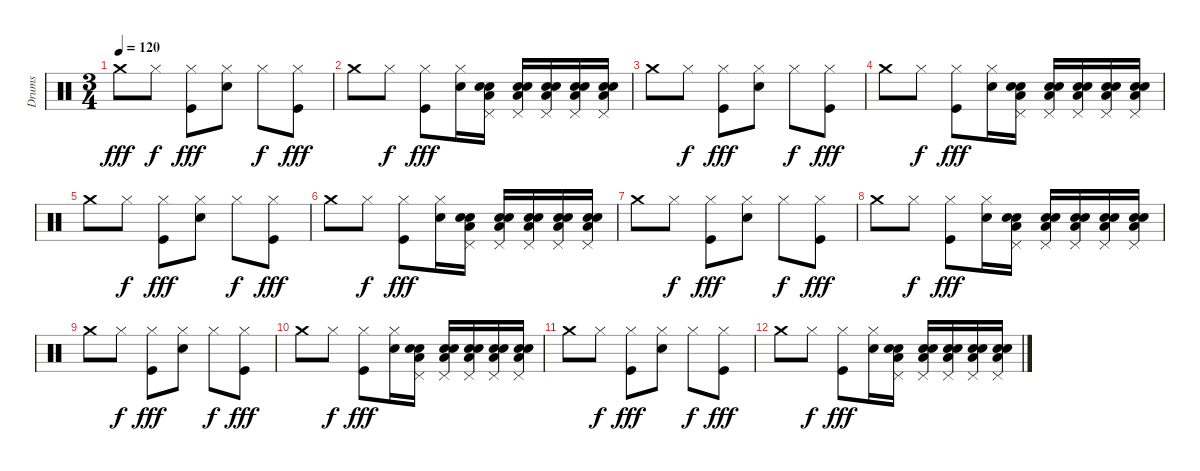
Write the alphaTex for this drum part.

\track ("Drums" "Drums") {instrument percussion}
\staff {score}
\articulation defaults
\ts (3 4)
\tempo 120
\clef neutral
\ks c "Crash medium (hit)".8{dy fff} "Hi-Hat (closed)".8{dy f}
("Kick (hit)" "Hi-Hat (closed)").8{dy fff} ("Snare (hit) 2" "Hi-Hat (closed)").8 "Hi-Hat (closed)".8{dy f} ("Kick (hit)" "Hi-Hat (closed)").8{dy fff} |
"Crash medium (hit)".8 "Hi-Hat (closed)".8{dy f} ("Kick (hit)" "Hi-Hat (closed)").8{dy fff} ("Snare (hit) 2" "Hi-Hat (closed)").16 ("Low Floor Tom (hit)" "Snare (hit) 2" "Snare (hit) 2" "Pedal Hi-Hat (hit)").16 ("Low Floor Tom (hit)" "Snare (hit) 2" "Snare (hit) 2" "Pedal Hi-Hat (hit)").16 ("Low Floor Tom (hit)" "Snare (hit) 2" "Snare (hit) 2" "Pedal Hi-Hat (hit)").16 ("Low Floor Tom (hit)" "Snare (hit) 2" "Snare (hit) 2" "Pedal Hi-Hat (hit)").16 ("Low Floor Tom (hit)" "Snare (hit) 2" "Snare (hit) 2" "Pedal Hi-Hat (hit)").16 |
"Crash medium (hit)".8 "Hi-Hat (closed)".8{dy f} ("Kick (hit)" "Hi-Hat (closed)").8{dy fff} ("Snare (hit) 2" "Hi-Hat (closed)").8 "Hi-Hat (closed)".8{dy f} ("Kick (hit)" "Hi-Hat (closed)").8{dy fff} |
"Crash medium (hit)".8 "Hi-Hat (closed)".8{dy f} ("Kick (hit)" "Hi-Hat (closed)").8{dy fff} ("Snare (hit) 2" "Hi-Hat (closed)").16 ("Low Floor Tom (hit)" "Snare (hit) 2" "Snare (hit) 2" "Pedal Hi-Hat (hit)").16 ("Low Floor Tom (hit)" "Snare (hit) 2" "Snare (hit) 2" "Pedal Hi-Hat (hit)").16 ("Low Floor Tom (hit)" "Snare (hit) 2" "Snare (hit) 2" "Pedal Hi-Hat (hit)").16 ("Low Floor Tom (hit)" "Snare (hit) 2" "Snare (hit) 2" "Pedal Hi-Hat (hit)").16 ("Low Floor Tom (hit)" "Snare (hit) 2" "Snare (hit) 2" "Pedal Hi-Hat (hit)").16 |
"Crash medium (hit)".8 "Hi-Hat (closed)".8{dy f} ("Kick (hit)" "Hi-Hat (closed)").8{dy fff} ("Snare (hit) 2" "Hi-Hat (closed)").8 "Hi-Hat (closed)".8{dy f} ("Kick (hit)" "Hi-Hat (closed)").8{dy fff} |
"Crash medium (hit)".8 "Hi-Hat (closed)".8{dy f} ("Kick (hit)" "Hi-Hat (closed)").8{dy fff} ("Snare (hit) 2" "Hi-Hat (closed)").16 ("Low Floor Tom (hit)" "Snare (hit) 2" "Snare (hit) 2" "Pedal Hi-Hat (hit)").16 ("Low Floor Tom (hit)" "Snare (hit) 2" "Snare (hit) 2" "Pedal Hi-Hat (hit)").16 ("Low Floor Tom (hit)" "Snare (hit) 2" "Snare (hit) 2" "Pedal Hi-Hat (hit)").16 ("Low Floor Tom (hit)" "Snare (hit) 2" "Snare (hit) 2" "Pedal Hi-Hat (hit)").16 ("Low Floor Tom (hit)" "Snare (hit) 2" "Snare (hit) 2" "Pedal Hi-Hat (hit)").16 |
"Crash medium (hit)".8 "Hi-Hat (closed)".8{dy f} ("Kick (hit)" "Hi-Hat (closed)").8{dy fff} ("Snare (hit) 2" "Hi-Hat (closed)").8 "Hi-Hat (closed)".8{dy f} ("Kick (hit)" "Hi-Hat (closed)").8{dy fff} |
"Crash medium (hit)".8 "Hi-Hat (closed)".8{dy f} ("Kick (hit)" "Hi-Hat (closed)").8{dy fff} ("Snare (hit) 2" "Hi-Hat (closed)").16 ("Low Floor Tom (hit)" "Snare (hit) 2" "Snare (hit) 2" "Pedal Hi-Hat (hit)").16 ("Low Floor Tom (hit)" "Snare (hit) 2" "Snare (hit) 2" "Pedal Hi-Hat (hit)").16 ("Low Floor Tom (hit)" "Snare (hit) 2" "Snare (hit) 2" "Pedal Hi-Hat (hit)").16 ("Low Floor Tom (hit)" "Snare (hit) 2" "Snare (hit) 2" "Pedal Hi-Hat (hit)").16 ("Low Floor Tom (hit)" "Snare (hit) 2" "Snare (hit) 2" "Pedal Hi-Hat (hit)").16 |
"Crash medium (hit)".8 "Hi-Hat (closed)".8{dy f} ("Kick (hit)" "Hi-Hat (closed)").8{dy fff} ("Snare (hit) 2" "Hi-Hat (closed)").8 "Hi-Hat (closed)".8{dy f} ("Kick (hit)" "Hi-Hat (closed)").8{dy fff} |
"Crash medium (hit)".8 "Hi-Hat (closed)".8{dy f} ("Kick (hit)" "Hi-Hat (closed)").8{dy fff} ("Snare (hit) 2" "Hi-Hat (closed)").16 ("Low Floor Tom (hit)" "Snare (hit) 2" "Snare (hit) 2" "Pedal Hi-Hat (hit)").16 ("Low Floor Tom (hit)" "Snare (hit) 2" "Snare (hit) 2" "Pedal Hi-Hat (hit)").16 ("Low Floor Tom (hit)" "Snare (hit) 2" "Snare (hit) 2" "Pedal Hi-Hat (hit)").16 ("Low Floor Tom (hit)" "Snare (hit) 2" "Snare (hit) 2" "Pedal Hi-Hat (hit)").16 ("Low Floor Tom (hit)" "Snare (hit) 2" "Snare (hit) 2" "Pedal Hi-Hat (hit)").16 |
"Crash medium (hit)".8 "Hi-Hat (closed)".8{dy f} ("Kick (hit)" "Hi-Hat (closed)").8{dy fff} ("Snare (hit) 2" "Hi-Hat (closed)").8 "Hi-Hat (closed)".8{dy f} ("Kick (hit)" "Hi-Hat (closed)").8{dy fff} |
"Crash medium (hit)".8 "Hi-Hat (closed)".8{dy f} ("Kick (hit)" "Hi-Hat (closed)").8{dy fff} ("Snare (hit) 2" "Hi-Hat (closed)").16 ("Low Floor Tom (hit)" "Snare (hit) 2" "Snare (hit) 2" "Pedal Hi-Hat (hit)").16 ("Low Floor Tom (hit)" "Snare (hit) 2" "Snare (hit) 2" "Pedal Hi-Hat (hit)").16 ("Low Floor Tom (hit)" "Snare (hit) 2" "Snare (hit) 2" "Pedal Hi-Hat (hit)").16 ("Low Floor Tom (hit)" "Snare (hit) 2" "Snare (hit) 2" "Pedal Hi-Hat (hit)").16 ("Low Floor Tom (hit)" "Snare (hit) 2" "Snare (hit) 2" "Pedal Hi-Hat (hit)").16
